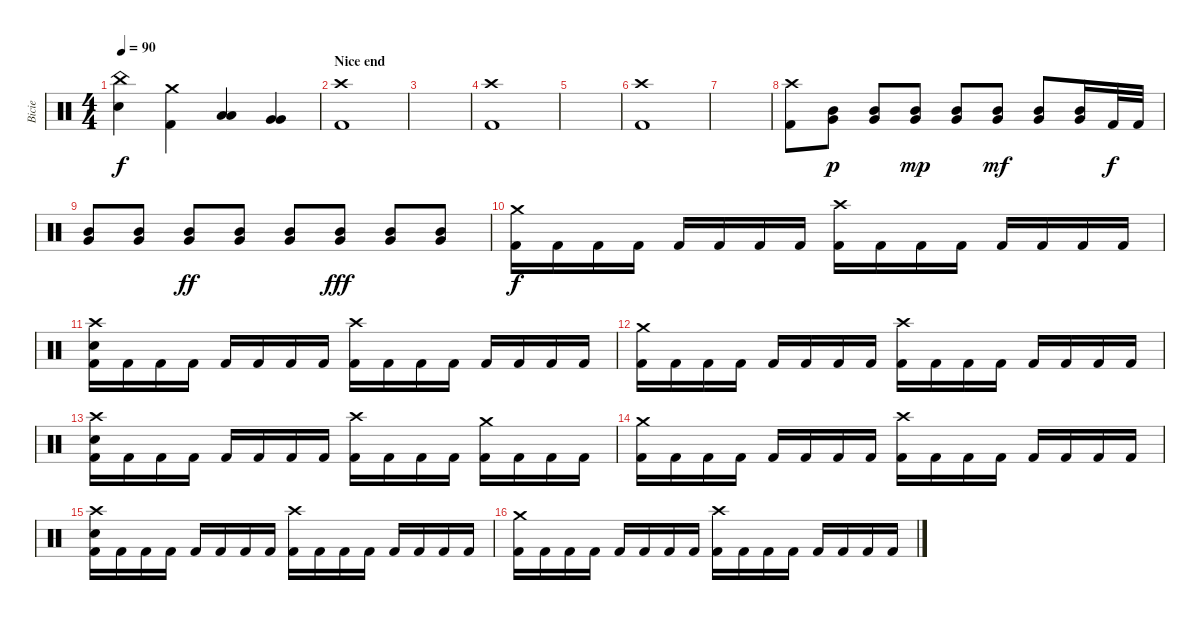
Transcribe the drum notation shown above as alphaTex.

\track ("Bicie" "Bicie") {instrument percussion}
\staff {score}
\articulation defaults
\ts (4 4)
\tempo 90
\clef neutral
\ks c
("China (hit)" "Electric Snare (hit)").4{dy f} ("Crash medium (hit)" "Kick (hit) 2").4 ("Low Tom (hit)" "Low Tom (hit)").4 ("Very Low Tom (hit)" "Very Low Tom (hit)").4 |
\section ("" "Nice end")
("Crash high (hit)" "Kick (hit) 2").1 |
|
("Crash high (hit)" "Kick (hit) 2").1 |
|
("Crash high (hit)" "Kick (hit) 2").1 |
|
("Crash high (hit)" "Kick (hit) 2").8 ("Mid Tom (hit)" "Very Low Tom (hit)").8{dy p} ("Mid Tom (hit)" "Very Low Tom (hit)").8 ("Mid Tom (hit)" "Very Low Tom (hit)").8{dy mp} ("Mid Tom (hit)" "Very Low Tom (hit)").8 ("Mid Tom (hit)" "Very Low Tom (hit)").8{dy mf} ("Mid Tom (hit)" "Very Low Tom (hit)").8 ("Mid Tom (hit)" "Very Low Tom (hit)").16 "Kick (hit) 2".32{dy f} "Kick (hit) 2".32 |
("Mid Tom (hit)" "Very Low Tom (hit)").8 ("Mid Tom (hit)" "Very Low Tom (hit)").8 ("Mid Tom (hit)" "Very Low Tom (hit)").8{dy ff} ("Mid Tom (hit)" "Very Low Tom (hit)").8 ("Mid Tom (hit)" "Very Low Tom (hit)").8 ("Mid Tom (hit)" "Very Low Tom (hit)").8{dy fff} ("Mid Tom (hit)" "Very Low Tom (hit)").8 ("Mid Tom (hit)" "Very Low Tom (hit)").8 |
("Crash medium (hit)" "Kick (hit) 2").16{dy f} "Kick (hit) 2".16 "Kick (hit) 2".16 "Kick (hit) 2".16 "Kick (hit) 2".16 "Kick (hit) 2".16 "Kick (hit) 2".16 "Kick (hit) 2".16 ("Crash high (hit)" "Kick (hit) 2").16 "Kick (hit) 2".16 "Kick (hit) 2".16 "Kick (hit) 2".16 "Kick (hit) 2".16 "Kick (hit) 2".16 "Kick (hit) 2".16 "Kick (hit) 2".16 |
("Crash high (hit)" "Electric Snare (hit)" "Kick (hit) 2").16 "Kick (hit) 2".16 "Kick (hit) 2".16 "Kick (hit) 2".16 "Kick (hit) 2".16 "Kick (hit) 2".16 "Kick (hit) 2".16 "Kick (hit) 2".16 ("Crash high (hit)" "Kick (hit) 2").16 "Kick (hit) 2".16 "Kick (hit) 2".16 "Kick (hit) 2".16 "Kick (hit) 2".16 "Kick (hit) 2".16 "Kick (hit) 2".16 "Kick (hit) 2".16 |
("Crash medium (hit)" "Kick (hit) 2").16 "Kick (hit) 2".16 "Kick (hit) 2".16 "Kick (hit) 2".16 "Kick (hit) 2".16 "Kick (hit) 2".16 "Kick (hit) 2".16 "Kick (hit) 2".16 ("Crash high (hit)" "Kick (hit) 2").16 "Kick (hit) 2".16 "Kick (hit) 2".16 "Kick (hit) 2".16 "Kick (hit) 2".16 "Kick (hit) 2".16 "Kick (hit) 2".16 "Kick (hit) 2".16 |
("Crash high (hit)" "Electric Snare (hit)" "Kick (hit) 2").16 "Kick (hit) 2".16 "Kick (hit) 2".16 "Kick (hit) 2".16 "Kick (hit) 2".16 "Kick (hit) 2".16 "Kick (hit) 2".16 "Kick (hit) 2".16 ("Crash high (hit)" "Kick (hit) 2").16 "Kick (hit) 2".16 "Kick (hit) 2".16 "Kick (hit) 2".16 ("Crash medium (hit)" "Kick (hit) 2").16 "Kick (hit) 2".16 "Kick (hit) 2".16 "Kick (hit) 2".16 |
("Crash medium (hit)" "Kick (hit) 2").16 "Kick (hit) 2".16 "Kick (hit) 2".16 "Kick (hit) 2".16 "Kick (hit) 2".16 "Kick (hit) 2".16 "Kick (hit) 2".16 "Kick (hit) 2".16 ("Crash high (hit)" "Kick (hit) 2").16 "Kick (hit) 2".16 "Kick (hit) 2".16 "Kick (hit) 2".16 "Kick (hit) 2".16 "Kick (hit) 2".16 "Kick (hit) 2".16 "Kick (hit) 2".16 |
("Crash high (hit)" "Electric Snare (hit)" "Kick (hit) 2").16 "Kick (hit) 2".16 "Kick (hit) 2".16 "Kick (hit) 2".16 "Kick (hit) 2".16 "Kick (hit) 2".16 "Kick (hit) 2".16 "Kick (hit) 2".16 ("Crash high (hit)" "Kick (hit) 2").16 "Kick (hit) 2".16 "Kick (hit) 2".16 "Kick (hit) 2".16 "Kick (hit) 2".16 "Kick (hit) 2".16 "Kick (hit) 2".16 "Kick (hit) 2".16 |
("Crash medium (hit)" "Kick (hit) 2").16 "Kick (hit) 2".16 "Kick (hit) 2".16 "Kick (hit) 2".16 "Kick (hit) 2".16 "Kick (hit) 2".16 "Kick (hit) 2".16 "Kick (hit) 2".16 ("Crash high (hit)" "Kick (hit) 2").16 "Kick (hit) 2".16 "Kick (hit) 2".16 "Kick (hit) 2".16 "Kick (hit) 2".16 "Kick (hit) 2".16 "Kick (hit) 2".16 "Kick (hit) 2".16
